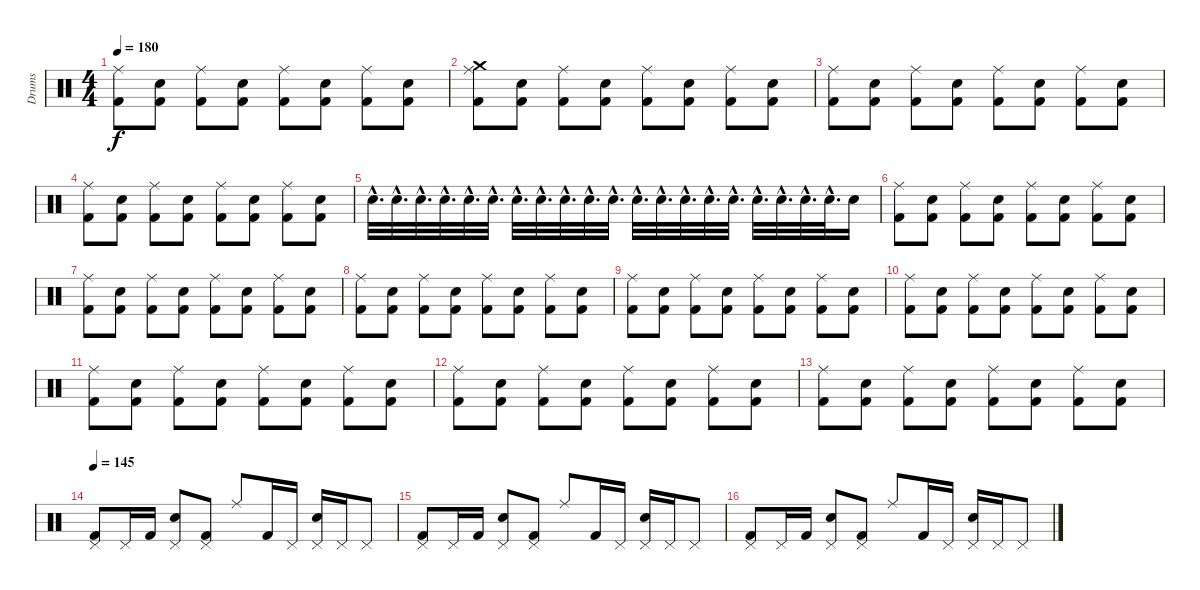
\track ("Drums" "Drums") {instrument percussion}
\staff {score}
\articulation defaults
\ts (4 4)
\tempo 180
\clef neutral
\ks c
("Ride (middle)" "Kick (hit) 2").8{dy f} ("Kick (hit) 2" "Electric Snare (hit)").8 ("Ride (middle)" "Kick (hit) 2").8 ("Kick (hit) 2" "Electric Snare (hit)").8 ("Ride (middle)" "Kick (hit) 2").8 ("Kick (hit) 2" "Electric Snare (hit)").8 ("Ride (middle)" "Kick (hit) 2").8 ("Kick (hit) 2" "Electric Snare (hit)").8 |
("Crash medium (hit)" "Ride (middle)" "Kick (hit) 2").8 ("Kick (hit) 2" "Electric Snare (hit)").8 ("Ride (middle)" "Kick (hit) 2").8 ("Kick (hit) 2" "Electric Snare (hit)").8 ("Ride (middle)" "Kick (hit) 2").8 ("Kick (hit) 2" "Electric Snare (hit)").8 ("Ride (middle)" "Kick (hit) 2").8 ("Kick (hit) 2" "Electric Snare (hit)").8 |
("Ride (middle)" "Kick (hit) 2").8 ("Kick (hit) 2" "Electric Snare (hit)").8 ("Ride (middle)" "Kick (hit) 2").8 ("Kick (hit) 2" "Electric Snare (hit)").8 ("Ride (middle)" "Kick (hit) 2").8 ("Kick (hit) 2" "Electric Snare (hit)").8 ("Ride (middle)" "Kick (hit) 2").8 ("Kick (hit) 2" "Electric Snare (hit)").8 |
("Ride (middle)" "Kick (hit) 2").8 ("Kick (hit) 2" "Electric Snare (hit)").8 ("Ride (middle)" "Kick (hit) 2").8 ("Kick (hit) 2" "Electric Snare (hit)").8 ("Ride (middle)" "Kick (hit) 2").8 ("Kick (hit) 2" "Electric Snare (hit)").8 ("Ride (middle)" "Kick (hit) 2").8 ("Kick (hit) 2" "Electric Snare (hit)").8 |
"Electric Snare (hit)"{hac}.32{d} "Electric Snare (hit)"{hac}.32{d} "Electric Snare (hit)"{hac}.32{d} "Electric Snare (hit)"{hac}.32{d} "Electric Snare (hit)"{hac}.32{d} "Electric Snare (hit)"{hac}.32{d} "Electric Snare (hit)"{hac}.32{d} "Electric Snare (hit)"{hac}.32{d} "Electric Snare (hit)"{hac}.32{d} "Electric Snare (hit)"{hac}.32{d} "Snare (hit) 2"{hac}.32{d} "Snare (hit) 2"{hac}.32{d} "Snare (hit) 2"{hac}.32{d} "Snare (hit) 2"{hac}.32{d} "Snare (hit) 2"{hac}.32{d} "Snare (hit) 2"{hac}.32{d} "Snare (hit) 2"{hac}.32{d} "Snare (hit) 2"{hac}.32{d} "Snare (hit) 2"{hac}.32{d} "Snare (hit) 2"{hac}.32{d} "Snare (hit) 2".16 |
("Ride (middle)" "Kick (hit) 2").8 ("Kick (hit) 2" "Electric Snare (hit)").8 ("Ride (middle)" "Kick (hit) 2").8 ("Kick (hit) 2" "Electric Snare (hit)").8 ("Ride (middle)" "Kick (hit) 2").8 ("Kick (hit) 2" "Electric Snare (hit)").8 ("Ride (middle)" "Kick (hit) 2").8 ("Kick (hit) 2" "Electric Snare (hit)").8 |
("Ride (middle)" "Kick (hit) 2").8 ("Kick (hit) 2" "Electric Snare (hit)").8 ("Ride (middle)" "Kick (hit) 2").8 ("Kick (hit) 2" "Electric Snare (hit)").8 ("Ride (middle)" "Kick (hit) 2").8 ("Kick (hit) 2" "Electric Snare (hit)").8 ("Ride (middle)" "Kick (hit) 2").8 ("Kick (hit) 2" "Electric Snare (hit)").8 |
("Ride (middle)" "Kick (hit) 2").8 ("Kick (hit) 2" "Electric Snare (hit)").8 ("Ride (middle)" "Kick (hit) 2").8 ("Kick (hit) 2" "Electric Snare (hit)").8 ("Ride (middle)" "Kick (hit) 2").8 ("Kick (hit) 2" "Electric Snare (hit)").8 ("Ride (middle)" "Kick (hit) 2").8 ("Kick (hit) 2" "Electric Snare (hit)").8 |
("Ride (middle)" "Kick (hit) 2").8 ("Kick (hit) 2" "Electric Snare (hit)").8 ("Ride (middle)" "Kick (hit) 2").8 ("Kick (hit) 2" "Electric Snare (hit)").8 ("Ride (middle)" "Kick (hit) 2").8 ("Kick (hit) 2" "Electric Snare (hit)").8 ("Ride (middle)" "Kick (hit) 2").8 ("Kick (hit) 2" "Electric Snare (hit)").8 |
("Ride (middle)" "Kick (hit) 2").8 ("Kick (hit) 2" "Electric Snare (hit)").8 ("Ride (middle)" "Kick (hit) 2").8 ("Kick (hit) 2" "Electric Snare (hit)").8 ("Ride (middle)" "Kick (hit) 2").8 ("Kick (hit) 2" "Electric Snare (hit)").8 ("Ride (middle)" "Kick (hit) 2").8 ("Kick (hit) 2" "Electric Snare (hit)").8 |
("Ride (middle)" "Kick (hit) 2").8 ("Kick (hit) 2" "Electric Snare (hit)").8 ("Ride (middle)" "Kick (hit) 2").8 ("Kick (hit) 2" "Electric Snare (hit)").8 ("Ride (middle)" "Kick (hit) 2").8 ("Kick (hit) 2" "Electric Snare (hit)").8 ("Ride (middle)" "Kick (hit) 2").8 ("Kick (hit) 2" "Electric Snare (hit)").8 |
("Ride (middle)" "Kick (hit) 2").8 ("Kick (hit) 2" "Electric Snare (hit)").8 ("Ride (middle)" "Kick (hit) 2").8 ("Kick (hit) 2" "Electric Snare (hit)").8 ("Ride (middle)" "Kick (hit) 2").8 ("Kick (hit) 2" "Electric Snare (hit)").8 ("Ride (middle)" "Kick (hit) 2").8 ("Kick (hit) 2" "Electric Snare (hit)").8 |
("Ride (middle)" "Kick (hit) 2").8 ("Kick (hit) 2" "Electric Snare (hit)").8 ("Ride (middle)" "Kick (hit) 2").8 ("Kick (hit) 2" "Electric Snare (hit)").8 ("Ride (middle)" "Kick (hit) 2").8 ("Kick (hit) 2" "Electric Snare (hit)").8 ("Ride (middle)" "Kick (hit) 2").8 ("Kick (hit) 2" "Electric Snare (hit)").8 |
\tempo 145
("Pedal Hi-Hat (hit)" "Kick (hit) 2").8 "Pedal Hi-Hat (hit)".16 "Kick (hit) 2".16 ("Pedal Hi-Hat (hit)" "Electric Snare (hit)").8 ("Pedal Hi-Hat (hit)" "Kick (hit) 2").8 "Ride (middle)".8 "Kick (hit) 2".16 "Pedal Hi-Hat (hit)".16 ("Pedal Hi-Hat (hit)" "Electric Snare (hit)").16 "Pedal Hi-Hat (hit)".16 "Pedal Hi-Hat (hit)".8 |
("Pedal Hi-Hat (hit)" "Kick (hit) 2").8 "Pedal Hi-Hat (hit)".16 "Kick (hit) 2".16 ("Pedal Hi-Hat (hit)" "Electric Snare (hit)").8 ("Pedal Hi-Hat (hit)" "Kick (hit) 2").8 "Ride (middle)".8 "Kick (hit) 2".16 "Pedal Hi-Hat (hit)".16 ("Pedal Hi-Hat (hit)" "Electric Snare (hit)").16 "Pedal Hi-Hat (hit)".16 "Pedal Hi-Hat (hit)".8 |
("Pedal Hi-Hat (hit)" "Kick (hit) 2").8 "Pedal Hi-Hat (hit)".16 "Kick (hit) 2".16 ("Pedal Hi-Hat (hit)" "Electric Snare (hit)").8 ("Pedal Hi-Hat (hit)" "Kick (hit) 2").8 "Ride (middle)".8 "Kick (hit) 2".16 "Pedal Hi-Hat (hit)".16 ("Pedal Hi-Hat (hit)" "Electric Snare (hit)").16 "Pedal Hi-Hat (hit)".16 "Pedal Hi-Hat (hit)".8
